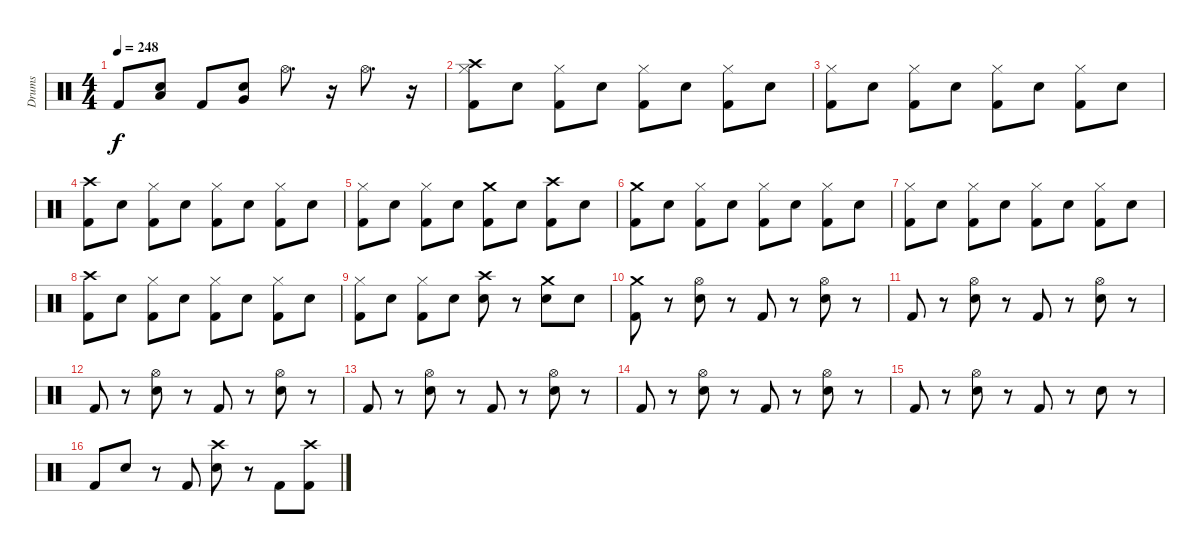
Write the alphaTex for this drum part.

\track ("Drums" "Drums") {instrument percussion}
\staff {score}
\articulation defaults
\ts (4 4)
\tempo 248
\clef neutral
\ks c "Kick (hit) 2".8{dy f}
("Electric Snare (hit)" "Low Tom (hit)").8 "Kick (hit) 2".8 ("Electric Snare (hit)" "Very Low Tom (hit)").8 "Hi-Hat (open)".8{d} r.16 "Hi-Hat (open)".8{d} r.16 |
("Hi-Hat (closed)" "Kick (hit) 2" "Crash high (hit)").8 "Electric Snare (hit)".8 ("Hi-Hat (closed)" "Kick (hit) 2").8 "Electric Snare (hit)".8 ("Hi-Hat (closed)" "Kick (hit) 2").8 "Electric Snare (hit)".8 ("Hi-Hat (closed)" "Kick (hit) 2").8 "Electric Snare (hit)".8 |
("Hi-Hat (closed)" "Kick (hit) 2").8 "Electric Snare (hit)".8 ("Hi-Hat (closed)" "Kick (hit) 2").8 "Electric Snare (hit)".8 ("Hi-Hat (closed)" "Kick (hit) 2").8 "Electric Snare (hit)".8 ("Hi-Hat (closed)" "Kick (hit) 2").8 "Electric Snare (hit)".8 |
("Crash high (hit)" "Kick (hit) 2").8 "Electric Snare (hit)".8 ("Hi-Hat (closed)" "Kick (hit) 2").8 "Electric Snare (hit)".8 ("Hi-Hat (closed)" "Kick (hit) 2").8 "Electric Snare (hit)".8 ("Hi-Hat (closed)" "Kick (hit) 2").8 "Electric Snare (hit)".8 |
("Hi-Hat (closed)" "Kick (hit) 2").8 "Electric Snare (hit)".8 ("Hi-Hat (closed)" "Kick (hit) 2").8 "Electric Snare (hit)".8 ("Crash medium (hit)" "Kick (hit) 2").8 "Electric Snare (hit)".8 ("Crash high (hit)" "Kick (hit) 2").8 "Electric Snare (hit)".8 |
("Crash medium (hit)" "Kick (hit) 2").8 "Electric Snare (hit)".8 ("Hi-Hat (closed)" "Kick (hit) 2").8 "Electric Snare (hit)".8 ("Hi-Hat (closed)" "Kick (hit) 2").8 "Electric Snare (hit)".8 ("Hi-Hat (closed)" "Kick (hit) 2").8 "Electric Snare (hit)".8 |
("Hi-Hat (closed)" "Kick (hit) 2").8 "Electric Snare (hit)".8 ("Hi-Hat (closed)" "Kick (hit) 2").8 "Electric Snare (hit)".8 ("Hi-Hat (closed)" "Kick (hit) 2").8 "Electric Snare (hit)".8 ("Hi-Hat (closed)" "Kick (hit) 2").8 "Electric Snare (hit)".8 |
("Crash high (hit)" "Kick (hit) 2").8 "Electric Snare (hit)".8 ("Hi-Hat (closed)" "Kick (hit) 2").8 "Electric Snare (hit)".8 ("Hi-Hat (closed)" "Kick (hit) 2").8 "Electric Snare (hit)".8 ("Hi-Hat (closed)" "Kick (hit) 2").8 "Electric Snare (hit)".8 |
("Hi-Hat (closed)" "Kick (hit) 2").8 "Electric Snare (hit)".8 ("Hi-Hat (closed)" "Kick (hit) 2").8 "Electric Snare (hit)".8 ("Crash high (hit)" "Electric Snare (hit)").8 r.8 ("Crash medium (hit)" "Electric Snare (hit)").8 "Electric Snare (hit)".8 |
("Crash medium (hit)" "Kick (hit) 2").8 r.8 ("Electric Snare (hit)" "Hi-Hat (open)").8 r.8 "Kick (hit) 2".8 r.8 ("Electric Snare (hit)" "Hi-Hat (open)").8 r.8 |
"Kick (hit) 2".8 r.8 ("Electric Snare (hit)" "Hi-Hat (open)").8 r.8 "Kick (hit) 2".8 r.8 ("Electric Snare (hit)" "Hi-Hat (open)").8 r.8 |
"Kick (hit) 2".8 r.8 ("Electric Snare (hit)" "Hi-Hat (open)").8 r.8 "Kick (hit) 2".8 r.8 ("Electric Snare (hit)" "Hi-Hat (open)").8 r.8 |
"Kick (hit) 2".8 r.8 ("Electric Snare (hit)" "Hi-Hat (open)").8 r.8 "Kick (hit) 2".8 r.8 ("Electric Snare (hit)" "Hi-Hat (open)").8 r.8 |
"Kick (hit) 2".8 r.8 ("Electric Snare (hit)" "Hi-Hat (open)").8 r.8 "Kick (hit) 2".8 r.8 ("Electric Snare (hit)" "Hi-Hat (open)").8 r.8 |
"Kick (hit) 2".8 r.8 ("Electric Snare (hit)" "Hi-Hat (open)").8 r.8 "Kick (hit) 2".8 r.8 "Electric Snare (hit)".8 r.8 |
"Kick (hit) 2".8 "Electric Snare (hit)".8 r.8 "Kick (hit) 2".8 ("Electric Snare (hit)" "Crash high (hit)").8 r.8 "Kick (hit) 2".8 ("Kick (hit) 2" "Crash high (hit)").8
